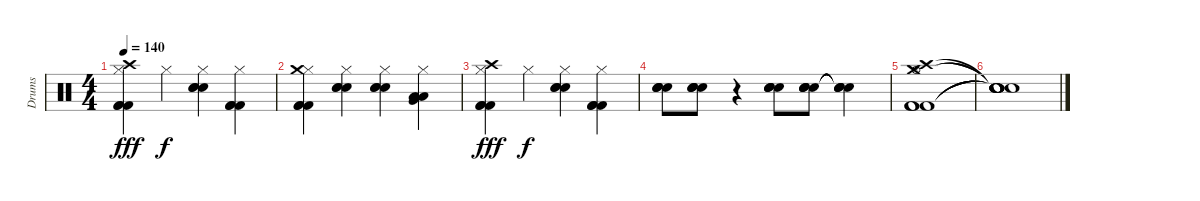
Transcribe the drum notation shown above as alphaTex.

\track ("Drums" "Drums") {instrument percussion}
\staff {score}
\articulation defaults
\ts (4 4)
\tempo 140
\clef neutral
\ks c
("Hi-Hat (closed)" "Kick (hit) 2" "Kick (hit) 2" "Kick (hit) 2" "Crash high (hit)").4{dy fff} "Hi-Hat (closed)".4{dy f} ("Hi-Hat (closed)" "Snare (hit) 2" "Snare (hit) 2" "Snare (hit) 2").4 ("Hi-Hat (closed)" "Kick (hit) 2" "Kick (hit) 2" "Kick (hit) 2").4 |
("Hi-Hat (closed)" "Kick (hit) 2" "Kick (hit) 2" "Kick (hit) 2" "Crash medium (hit)").4 ("Hi-Hat (closed)" "Snare (hit) 2" "Snare (hit) 2" "Snare (hit) 2").4 ("Hi-Hat (closed)" "Snare (hit) 2" "Snare (hit) 2" "Snare (hit) 2").4 ("Hi-Hat (closed)" "Low Tom (hit)" "Very Low Tom (hit)" "Low Floor Tom (hit)").4 |
("Hi-Hat (closed)" "Kick (hit) 2" "Kick (hit) 2" "Kick (hit) 2" "Crash high (hit)").4{dy fff} "Hi-Hat (closed)".4{dy f} ("Hi-Hat (closed)" "Snare (hit) 2" "Snare (hit) 2" "Snare (hit) 2").4 ("Hi-Hat (closed)" "Kick (hit) 2" "Kick (hit) 2" "Kick (hit) 2").4 |
("Electric Snare (hit)" "Electric Snare (hit)" "Electric Snare (hit)" "Electric Snare (hit)").8 ("Electric Snare (hit)" "Electric Snare (hit)" "Electric Snare (hit)" "Electric Snare (hit)").8 r.4 ("Electric Snare (hit)" "Electric Snare (hit)" "Electric Snare (hit)" "Electric Snare (hit)").8 ("Electric Snare (hit)" "Electric Snare (hit)" "Electric Snare (hit)" "Electric Snare (hit)").8 ("Snare (hit)"{t} "Snare (hit)"{t} "Snare (hit)"{t} "Snare (hit)"{t}).4 |
("Hi-Hat (open)" "Crash medium (hit)" "Kick (hit) 2" "Kick (hit) 2" "Kick (hit) 2" "Crash high (hit)").1 |
("Snare (hit)"{t} "Snare (hit)"{t} "Snare (hit)"{t} "Snare (hit)"{t} "Snare (hit)"{t} "Snare (hit)"{t}).1
